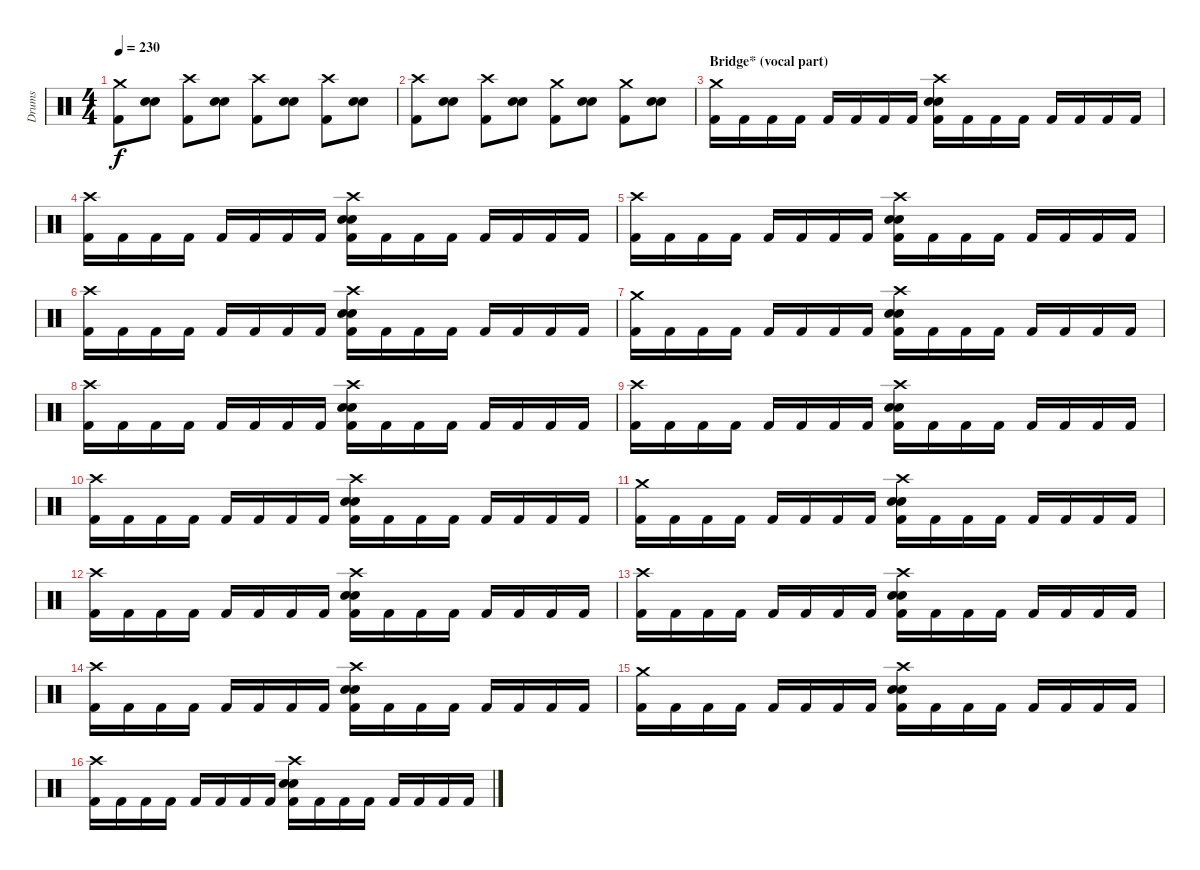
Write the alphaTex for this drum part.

\track ("Drums" "Drums") {instrument percussion}
\staff {score}
\articulation defaults
\ts (4 4)
\tempo 230
\clef neutral
\ks c
("Crash medium (hit)" "Kick (hit) 2").8{dy f} ("Electric Snare (hit)" "Electric Snare (hit)").8 ("Crash high (hit)" "Kick (hit) 2").8 ("Electric Snare (hit)" "Electric Snare (hit)").8 ("Crash high (hit)" "Kick (hit) 2").8 ("Electric Snare (hit)" "Electric Snare (hit)").8 ("Crash high (hit)" "Kick (hit) 2").8 ("Electric Snare (hit)" "Electric Snare (hit)").8 |
("Crash high (hit)" "Kick (hit) 2").8 ("Electric Snare (hit)" "Electric Snare (hit)").8 ("Crash high (hit)" "Kick (hit) 2").8 ("Electric Snare (hit)" "Electric Snare (hit)").8 ("Crash medium (hit)" "Kick (hit) 2").8 ("Electric Snare (hit)" "Electric Snare (hit)").8 ("Crash medium (hit)" "Kick (hit) 2").8 ("Electric Snare (hit)" "Electric Snare (hit)").8 |
\section ("" "Bridge* (vocal part)")
("Crash medium (hit)" "Kick (hit) 2").16 "Kick (hit) 2".16 "Kick (hit) 2".16 "Kick (hit) 2".16 "Kick (hit) 2".16 "Kick (hit) 2".16 "Kick (hit) 2".16 "Kick (hit) 2".16 ("Crash high (hit)" "Electric Snare (hit)" "Electric Snare (hit)" "Kick (hit) 2").16 "Kick (hit) 2".16 "Kick (hit) 2".16 "Kick (hit) 2".16 "Kick (hit) 2".16 "Kick (hit) 2".16 "Kick (hit) 2".16 "Kick (hit) 2".16 |
("Crash high (hit)" "Kick (hit) 2").16 "Kick (hit) 2".16 "Kick (hit) 2".16 "Kick (hit) 2".16 "Kick (hit) 2".16 "Kick (hit) 2".16 "Kick (hit) 2".16 "Kick (hit) 2".16 ("Crash high (hit)" "Electric Snare (hit)" "Electric Snare (hit)" "Kick (hit) 2").16 "Kick (hit) 2".16 "Kick (hit) 2".16 "Kick (hit) 2".16 "Kick (hit) 2".16 "Kick (hit) 2".16 "Kick (hit) 2".16 "Kick (hit) 2".16 |
("Crash high (hit)" "Kick (hit) 2").16 "Kick (hit) 2".16 "Kick (hit) 2".16 "Kick (hit) 2".16 "Kick (hit) 2".16 "Kick (hit) 2".16 "Kick (hit) 2".16 "Kick (hit) 2".16 ("Crash high (hit)" "Electric Snare (hit)" "Electric Snare (hit)" "Kick (hit) 2").16 "Kick (hit) 2".16 "Kick (hit) 2".16 "Kick (hit) 2".16 "Kick (hit) 2".16 "Kick (hit) 2".16 "Kick (hit) 2".16 "Kick (hit) 2".16 |
("Crash high (hit)" "Kick (hit) 2").16 "Kick (hit) 2".16 "Kick (hit) 2".16 "Kick (hit) 2".16 "Kick (hit) 2".16 "Kick (hit) 2".16 "Kick (hit) 2".16 "Kick (hit) 2".16 ("Crash high (hit)" "Electric Snare (hit)" "Electric Snare (hit)" "Kick (hit) 2").16 "Kick (hit) 2".16 "Kick (hit) 2".16 "Kick (hit) 2".16 "Kick (hit) 2".16 "Kick (hit) 2".16 "Kick (hit) 2".16 "Kick (hit) 2".16 |
("Crash medium (hit)" "Kick (hit) 2").16 "Kick (hit) 2".16 "Kick (hit) 2".16 "Kick (hit) 2".16 "Kick (hit) 2".16 "Kick (hit) 2".16 "Kick (hit) 2".16 "Kick (hit) 2".16 ("Crash high (hit)" "Electric Snare (hit)" "Electric Snare (hit)" "Kick (hit) 2").16 "Kick (hit) 2".16 "Kick (hit) 2".16 "Kick (hit) 2".16 "Kick (hit) 2".16 "Kick (hit) 2".16 "Kick (hit) 2".16 "Kick (hit) 2".16 |
("Crash high (hit)" "Kick (hit) 2").16 "Kick (hit) 2".16 "Kick (hit) 2".16 "Kick (hit) 2".16 "Kick (hit) 2".16 "Kick (hit) 2".16 "Kick (hit) 2".16 "Kick (hit) 2".16 ("Crash high (hit)" "Electric Snare (hit)" "Electric Snare (hit)" "Kick (hit) 2").16 "Kick (hit) 2".16 "Kick (hit) 2".16 "Kick (hit) 2".16 "Kick (hit) 2".16 "Kick (hit) 2".16 "Kick (hit) 2".16 "Kick (hit) 2".16 |
("Crash high (hit)" "Kick (hit) 2").16 "Kick (hit) 2".16 "Kick (hit) 2".16 "Kick (hit) 2".16 "Kick (hit) 2".16 "Kick (hit) 2".16 "Kick (hit) 2".16 "Kick (hit) 2".16 ("Crash high (hit)" "Electric Snare (hit)" "Electric Snare (hit)" "Kick (hit) 2").16 "Kick (hit) 2".16 "Kick (hit) 2".16 "Kick (hit) 2".16 "Kick (hit) 2".16 "Kick (hit) 2".16 "Kick (hit) 2".16 "Kick (hit) 2".16 |
("Crash high (hit)" "Kick (hit) 2").16 "Kick (hit) 2".16 "Kick (hit) 2".16 "Kick (hit) 2".16 "Kick (hit) 2".16 "Kick (hit) 2".16 "Kick (hit) 2".16 "Kick (hit) 2".16 ("Crash high (hit)" "Electric Snare (hit)" "Electric Snare (hit)" "Kick (hit) 2").16 "Kick (hit) 2".16 "Kick (hit) 2".16 "Kick (hit) 2".16 "Kick (hit) 2".16 "Kick (hit) 2".16 "Kick (hit) 2".16 "Kick (hit) 2".16 |
("Crash medium (hit)" "Kick (hit) 2").16 "Kick (hit) 2".16 "Kick (hit) 2".16 "Kick (hit) 2".16 "Kick (hit) 2".16 "Kick (hit) 2".16 "Kick (hit) 2".16 "Kick (hit) 2".16 ("Crash high (hit)" "Electric Snare (hit)" "Electric Snare (hit)" "Kick (hit) 2").16 "Kick (hit) 2".16 "Kick (hit) 2".16 "Kick (hit) 2".16 "Kick (hit) 2".16 "Kick (hit) 2".16 "Kick (hit) 2".16 "Kick (hit) 2".16 |
("Crash high (hit)" "Kick (hit) 2").16 "Kick (hit) 2".16 "Kick (hit) 2".16 "Kick (hit) 2".16 "Kick (hit) 2".16 "Kick (hit) 2".16 "Kick (hit) 2".16 "Kick (hit) 2".16 ("Crash high (hit)" "Electric Snare (hit)" "Electric Snare (hit)" "Kick (hit) 2").16 "Kick (hit) 2".16 "Kick (hit) 2".16 "Kick (hit) 2".16 "Kick (hit) 2".16 "Kick (hit) 2".16 "Kick (hit) 2".16 "Kick (hit) 2".16 |
("Crash high (hit)" "Kick (hit) 2").16 "Kick (hit) 2".16 "Kick (hit) 2".16 "Kick (hit) 2".16 "Kick (hit) 2".16 "Kick (hit) 2".16 "Kick (hit) 2".16 "Kick (hit) 2".16 ("Crash high (hit)" "Electric Snare (hit)" "Electric Snare (hit)" "Kick (hit) 2").16 "Kick (hit) 2".16 "Kick (hit) 2".16 "Kick (hit) 2".16 "Kick (hit) 2".16 "Kick (hit) 2".16 "Kick (hit) 2".16 "Kick (hit) 2".16 |
("Crash high (hit)" "Kick (hit) 2").16 "Kick (hit) 2".16 "Kick (hit) 2".16 "Kick (hit) 2".16 "Kick (hit) 2".16 "Kick (hit) 2".16 "Kick (hit) 2".16 "Kick (hit) 2".16 ("Crash high (hit)" "Electric Snare (hit)" "Electric Snare (hit)" "Kick (hit) 2").16 "Kick (hit) 2".16 "Kick (hit) 2".16 "Kick (hit) 2".16 "Kick (hit) 2".16 "Kick (hit) 2".16 "Kick (hit) 2".16 "Kick (hit) 2".16 |
("Crash medium (hit)" "Kick (hit) 2").16 "Kick (hit) 2".16 "Kick (hit) 2".16 "Kick (hit) 2".16 "Kick (hit) 2".16 "Kick (hit) 2".16 "Kick (hit) 2".16 "Kick (hit) 2".16 ("Crash high (hit)" "Electric Snare (hit)" "Electric Snare (hit)" "Kick (hit) 2").16 "Kick (hit) 2".16 "Kick (hit) 2".16 "Kick (hit) 2".16 "Kick (hit) 2".16 "Kick (hit) 2".16 "Kick (hit) 2".16 "Kick (hit) 2".16 |
("Crash high (hit)" "Kick (hit) 2").16 "Kick (hit) 2".16 "Kick (hit) 2".16 "Kick (hit) 2".16 "Kick (hit) 2".16 "Kick (hit) 2".16 "Kick (hit) 2".16 "Kick (hit) 2".16 ("Crash high (hit)" "Electric Snare (hit)" "Electric Snare (hit)" "Kick (hit) 2").16 "Kick (hit) 2".16 "Kick (hit) 2".16 "Kick (hit) 2".16 "Kick (hit) 2".16 "Kick (hit) 2".16 "Kick (hit) 2".16 "Kick (hit) 2".16
